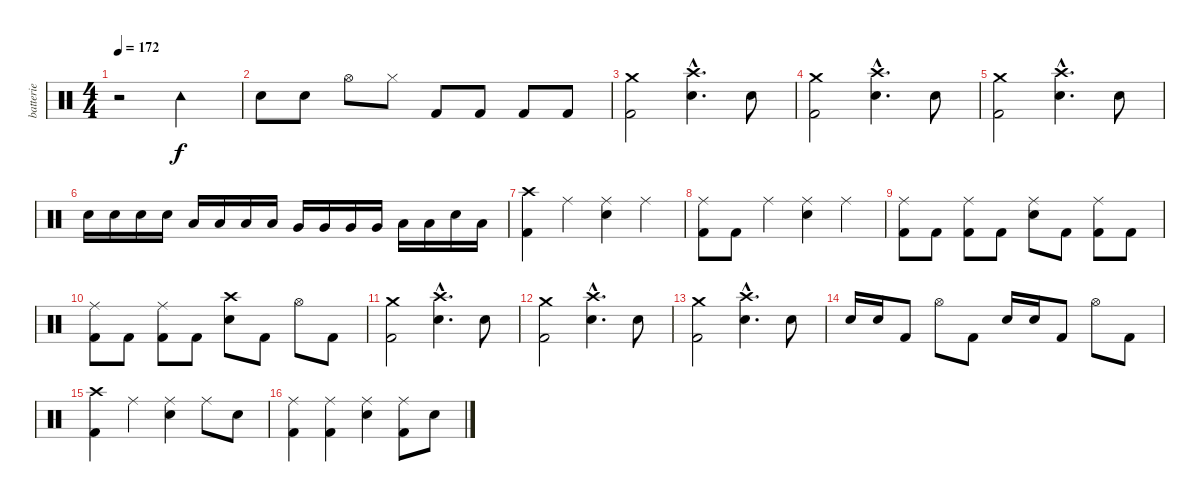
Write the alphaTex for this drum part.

\track ("batterie" "batterie") {instrument percussion}
\staff {score}
\articulation defaults
\ts (4 4)
\tempo 172
\clef neutral
\ks c
r.2{dy f} "Tambourine (hit)".2 |
"Electric Snare (hit)".8 "Electric Snare (hit)".8 "Hi-Hat (open)".8 "Hi-Hat (closed)".8 "Kick (hit) 2".8 "Kick (hit) 2".8 "Kick (hit) 2".8 "Kick (hit) 2".8 |
("Kick (hit) 2" "Crash medium (hit)").2 ("Crash high (hit)"{hac} "Electric Snare (hit)"{hac}).4{d} "Electric Snare (hit)".8 |
("Kick (hit) 2" "Crash medium (hit)").2 ("Crash high (hit)"{hac} "Electric Snare (hit)"{hac}).4{d} "Electric Snare (hit)".8 |
("Kick (hit) 2" "Crash medium (hit)").2 ("Crash high (hit)"{hac} "Electric Snare (hit)"{hac}).4{d} "Electric Snare (hit)".8 |
"Electric Snare (hit)".16 "Electric Snare (hit)".16 "Electric Snare (hit)".16 "Electric Snare (hit)".16 "Low Tom (hit)".16 "Low Tom (hit)".16 "Low Tom (hit)".16 "Low Tom (hit)".16 "Very Low Tom (hit)".16 "Very Low Tom (hit)".16 "Very Low Tom (hit)".16 "Very Low Tom (hit)".16 "Low Floor Tom (hit)".16 "Low Floor Tom (hit)".16 "Snare (hit)".16 "Low Floor Tom (hit)".16 |
("Crash high (hit)" "Kick (hit) 2").4 "Ride (middle)".4 ("Ride (middle)" "Electric Snare (hit)").4 "Ride (middle)".4 |
("Ride (middle)" "Kick (hit) 2").8 "Kick (hit) 2".8 "Ride (middle)".4 ("Ride (middle)" "Electric Snare (hit)").4 "Ride (middle)".4 |
("Ride (middle)" "Kick (hit) 2").8 "Kick (hit) 2".8 ("Ride (middle)" "Kick (hit) 2").8 "Kick (hit) 2".8 ("Ride (middle)" "Electric Snare (hit)").8 "Kick (hit) 2".8 ("Ride (middle)" "Kick (hit) 2").8 "Kick (hit) 2".8 |
("Kick (hit) 2" "Ride (middle)").8 "Kick (hit) 2".8 ("Kick (hit) 2" "Ride (middle)").8 "Kick (hit) 2".8 ("Crash high (hit)" "Electric Snare (hit)").8 "Kick (hit) 2".8 "Hi-Hat (open)".8 "Kick (hit) 2".8 |
("Kick (hit) 2" "Crash medium (hit)").2 ("Crash high (hit)"{hac} "Electric Snare (hit)"{hac}).4{d} "Electric Snare (hit)".8 |
("Kick (hit) 2" "Crash medium (hit)").2 ("Crash high (hit)"{hac} "Electric Snare (hit)"{hac}).4{d} "Electric Snare (hit)".8 |
("Kick (hit) 2" "Crash medium (hit)").2 ("Crash high (hit)"{hac} "Electric Snare (hit)"{hac}).4{d} "Electric Snare (hit)".8 |
"Electric Snare (hit)".16 "Electric Snare (hit)".16 "Kick (hit) 2".8 "Hi-Hat (open)".8 "Kick (hit) 2".8 "Electric Snare (hit)".16 "Electric Snare (hit)".16 "Kick (hit) 2".8 "Hi-Hat (open)".8 "Kick (hit) 2".8 |
("Crash high (hit)" "Kick (hit) 2").4 "Ride (middle)".4 ("Electric Snare (hit)" "Ride (middle)").4 "Ride (middle)".8 "Electric Snare (hit)".8 |
("Kick (hit) 2" "Ride (middle)").4 ("Kick (hit) 2" "Ride (middle)").4 ("Ride (middle)" "Electric Snare (hit)").4 ("Ride (middle)" "Kick (hit) 2").8 "Electric Snare (hit)".8
